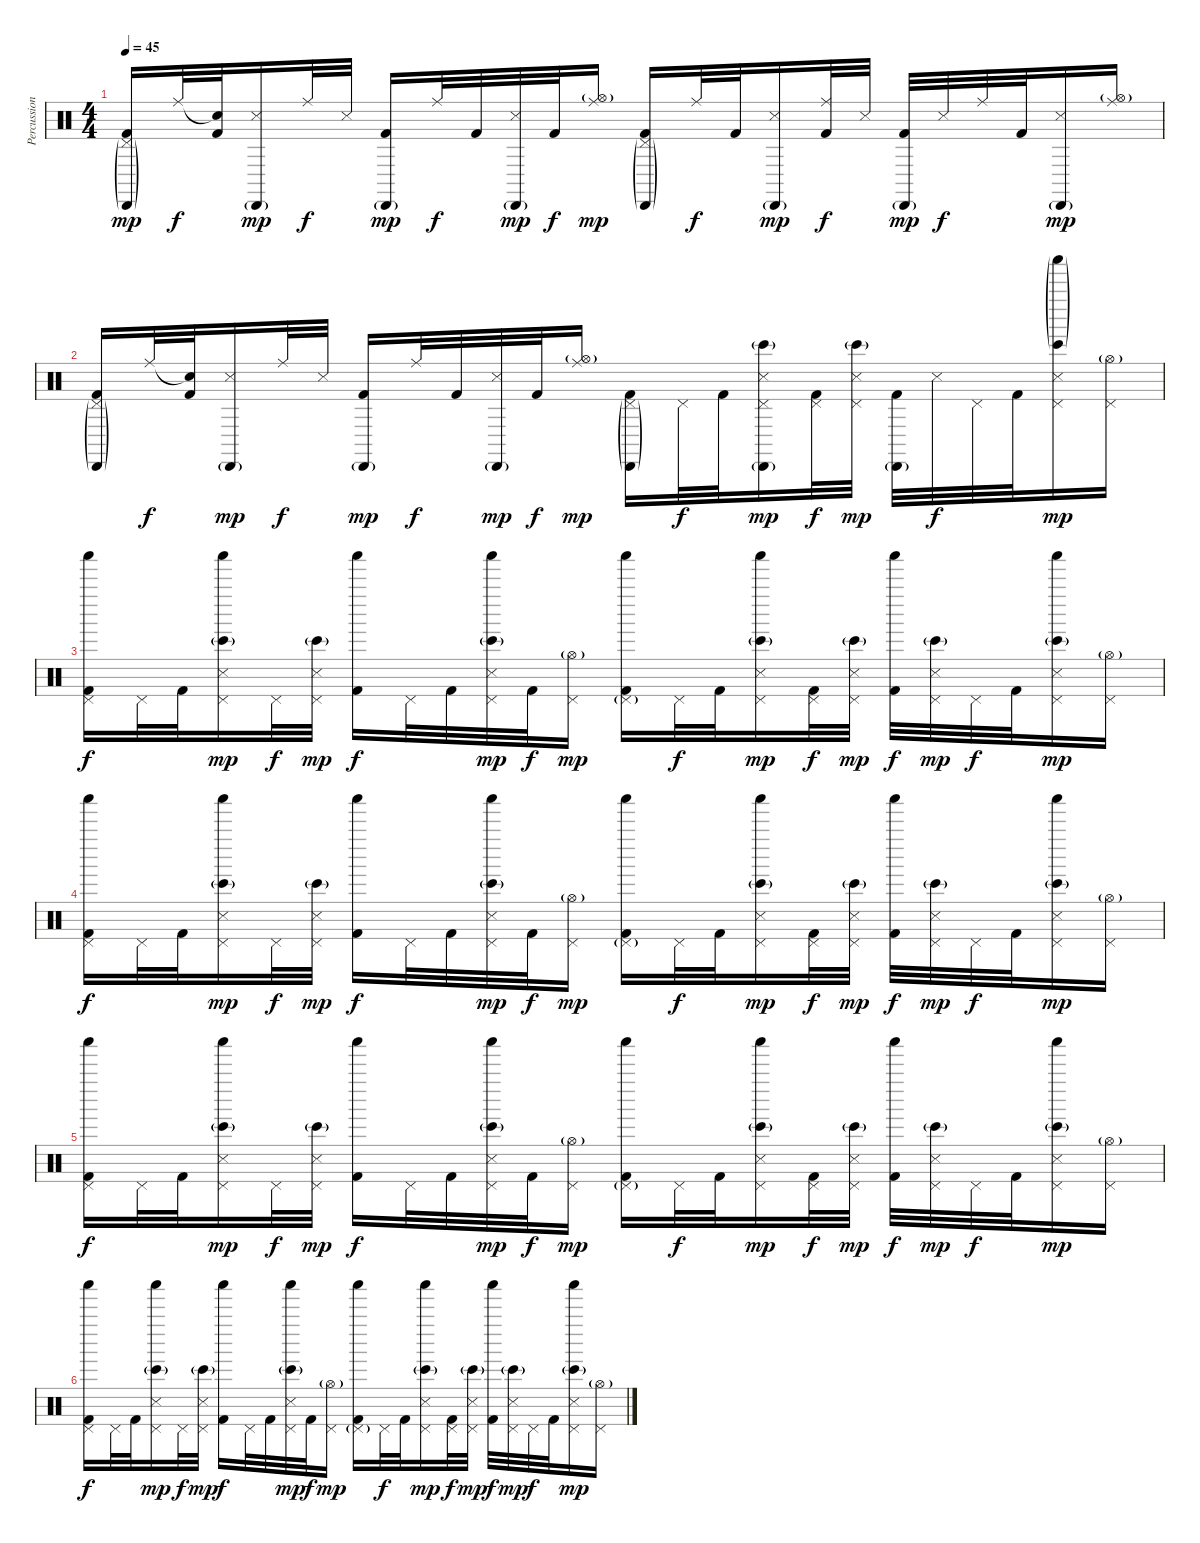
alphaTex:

\track ("Percussion" "Percussion") {instrument percussion}
\staff {score}
\articulation defaults
\ts (4 4)
\tempo 45
\clef neutral
\ks c
("Pedal Hi-Hat (hit)"{g} "Cabasa (hit)"{g} "Kick (hit) 2").16{dy mp} "Ride (middle)".32{dy f} ("Snare (hit)"{t} "Kick (hit) 2").32 ("Cabasa (hit)"{g} "Snare (side stick) 3").16{dy mp} "Ride (middle)".32{dy f} "Snare (side stick) 3".32 ("Cabasa (hit)"{g} "Kick (hit) 2").16{dy mp} "Ride (middle)".32{dy f} "Kick (hit) 2".32 ("Cabasa (hit)"{g} "Snare (side stick) 3").32{dy mp} "Kick (hit) 2".32{dy f} ("Hi-Hat (open)"{g} "Ride (middle)").16{dy mp} ("Pedal Hi-Hat (hit)"{g} "Cabasa (hit)"{g} "Kick (hit) 2").16 "Ride (middle)".32{dy f} "Kick (hit) 2".32 ("Cabasa (hit)"{g} "Snare (side stick) 3").16{dy mp} ("Ride (middle)" "Kick (hit) 2").32{dy f} "Snare (side stick) 3".32 ("Cabasa (hit)"{g} "Kick (hit) 2").32{dy mp} "Snare (side stick) 3".32{dy f} "Ride (middle)".32 "Kick (hit) 2".32 ("Cabasa (hit)"{g} "Snare (side stick) 3").16{dy mp} ("Hi-Hat (open)"{g} "Ride (middle)").16 |
("Pedal Hi-Hat (hit)"{g} "Cabasa (hit)"{g} "Kick (hit) 2").16 "Ride (middle)".32{dy f} ("Snare (hit)"{t} "Kick (hit) 2").32 ("Cabasa (hit)"{g} "Snare (side stick) 3").16{dy mp} "Ride (middle)".32{dy f} "Snare (side stick) 3".32 ("Cabasa (hit)"{g} "Kick (hit) 2").16{dy mp} "Ride (middle)".32{dy f} "Kick (hit) 2".32 ("Cabasa (hit)"{g} "Snare (side stick) 3").32{dy mp} "Kick (hit) 2".32{dy f} ("Hi-Hat (open)"{g} "Ride (middle)").16{dy mp} ("Pedal Hi-Hat (hit)"{g} "Cabasa (hit)"{g} "Kick (hit) 2").16 "Pedal Hi-Hat (hit)".32{dy f} "Kick (hit) 2".32 ("Pedal Hi-Hat (hit)" "Cabasa (hit)"{g} "Snare (side stick) 3" "Bongo High (hit)"{g}).16{dy mp} ("Pedal Hi-Hat (hit)" "Kick (hit) 2").32{dy f} ("Pedal Hi-Hat (hit)" "Snare (side stick) 3" "Bongo High (hit)"{g}).32{dy mp} ("Cabasa (hit)"{g} "Kick (hit) 2").32 "Snare (side stick) 3".32{dy f} "Pedal Hi-Hat (hit)".32 "Kick (hit) 2".32 ("Pedal Hi-Hat (hit)" "Shaker (hit)"{g} "Snare (side stick) 3" "Bongo High (hit)"{g}).16{dy mp} ("Hi-Hat (open)"{g} "Pedal Hi-Hat (hit)").16 |
("Pedal Hi-Hat (hit)" "Shaker (hit)" "Kick (hit) 2").16{dy f volume 14} "Pedal Hi-Hat (hit)".32 "Kick (hit) 2".32 ("Pedal Hi-Hat (hit)" "Shaker (hit)" "Snare (side stick) 3" "Bongo High (hit)"{g}).16{dy mp} "Pedal Hi-Hat (hit)".32{dy f} ("Pedal Hi-Hat (hit)" "Snare (side stick) 3" "Bongo High (hit)"{g}).32{dy mp} ("Shaker (hit)" "Kick (hit) 2").16{dy f} "Pedal Hi-Hat (hit)".32 "Kick (hit) 2".32 ("Pedal Hi-Hat (hit)" "Shaker (hit)" "Snare (side stick) 3" "Bongo High (hit)"{g}).32{dy mp} "Kick (hit) 2".32{dy f} ("Hi-Hat (open)"{g} "Pedal Hi-Hat (hit)").16{dy mp} ("Pedal Hi-Hat (hit)"{g} "Shaker (hit)" "Kick (hit) 2").16 "Pedal Hi-Hat (hit)".32{dy f} "Kick (hit) 2".32 ("Pedal Hi-Hat (hit)" "Shaker (hit)" "Snare (side stick) 3" "Bongo High (hit)"{g}).16{dy mp} ("Pedal Hi-Hat (hit)" "Kick (hit) 2").32{dy f} ("Pedal Hi-Hat (hit)" "Snare (side stick) 3" "Bongo High (hit)"{g}).32{dy mp} ("Shaker (hit)" "Kick (hit) 2").32{dy f} ("Pedal Hi-Hat (hit)" "Snare (side stick) 3" "Bongo High (hit)"{g}).32{dy mp} "Pedal Hi-Hat (hit)".32{dy f} "Kick (hit) 2".32 ("Pedal Hi-Hat (hit)" "Shaker (hit)" "Snare (side stick) 3" "Bongo High (hit)"{g}).16{dy mp} ("Hi-Hat (open)"{g} "Pedal Hi-Hat (hit)").16 |
("Pedal Hi-Hat (hit)" "Shaker (hit)" "Kick (hit) 2").16{dy f volume 12} "Pedal Hi-Hat (hit)".32 "Kick (hit) 2".32 ("Pedal Hi-Hat (hit)" "Shaker (hit)" "Snare (side stick) 3" "Bongo High (hit)"{g}).16{dy mp} "Pedal Hi-Hat (hit)".32{dy f} ("Pedal Hi-Hat (hit)" "Snare (side stick) 3" "Bongo High (hit)"{g}).32{dy mp} ("Shaker (hit)" "Kick (hit) 2").16{dy f} "Pedal Hi-Hat (hit)".32 "Kick (hit) 2".32 ("Pedal Hi-Hat (hit)" "Shaker (hit)" "Snare (side stick) 3" "Bongo High (hit)"{g}).32{dy mp} "Kick (hit) 2".32{dy f} ("Hi-Hat (open)"{g} "Pedal Hi-Hat (hit)").16{dy mp} ("Pedal Hi-Hat (hit)"{g} "Shaker (hit)" "Kick (hit) 2").16 "Pedal Hi-Hat (hit)".32{dy f} "Kick (hit) 2".32 ("Pedal Hi-Hat (hit)" "Shaker (hit)" "Snare (side stick) 3" "Bongo High (hit)"{g}).16{dy mp} ("Pedal Hi-Hat (hit)" "Kick (hit) 2").32{dy f} ("Pedal Hi-Hat (hit)" "Snare (side stick) 3" "Bongo High (hit)"{g}).32{dy mp} ("Shaker (hit)" "Kick (hit) 2").32{dy f} ("Pedal Hi-Hat (hit)" "Snare (side stick) 3" "Bongo High (hit)"{g}).32{dy mp} "Pedal Hi-Hat (hit)".32{dy f} "Kick (hit) 2".32 ("Pedal Hi-Hat (hit)" "Shaker (hit)" "Snare (side stick) 3" "Bongo High (hit)"{g}).16{dy mp} ("Hi-Hat (open)"{g} "Pedal Hi-Hat (hit)").16 |
("Pedal Hi-Hat (hit)" "Shaker (hit)" "Kick (hit) 2").16{dy f volume 10} "Pedal Hi-Hat (hit)".32 "Kick (hit) 2".32 ("Pedal Hi-Hat (hit)" "Shaker (hit)" "Snare (side stick) 3" "Bongo High (hit)"{g}).16{dy mp} "Pedal Hi-Hat (hit)".32{dy f} ("Pedal Hi-Hat (hit)" "Snare (side stick) 3" "Bongo High (hit)"{g}).32{dy mp} ("Shaker (hit)" "Kick (hit) 2").16{dy f} "Pedal Hi-Hat (hit)".32 "Kick (hit) 2".32 ("Pedal Hi-Hat (hit)" "Shaker (hit)" "Snare (side stick) 3" "Bongo High (hit)"{g}).32{dy mp} "Kick (hit) 2".32{dy f} ("Hi-Hat (open)"{g} "Pedal Hi-Hat (hit)").16{dy mp} ("Pedal Hi-Hat (hit)"{g} "Shaker (hit)" "Kick (hit) 2").16 "Pedal Hi-Hat (hit)".32{dy f} "Kick (hit) 2".32 ("Pedal Hi-Hat (hit)" "Shaker (hit)" "Snare (side stick) 3" "Bongo High (hit)"{g}).16{dy mp} ("Pedal Hi-Hat (hit)" "Kick (hit) 2").32{dy f} ("Pedal Hi-Hat (hit)" "Snare (side stick) 3" "Bongo High (hit)"{g}).32{dy mp} ("Shaker (hit)" "Kick (hit) 2").32{dy f} ("Pedal Hi-Hat (hit)" "Snare (side stick) 3" "Bongo High (hit)"{g}).32{dy mp} "Pedal Hi-Hat (hit)".32{dy f} "Kick (hit) 2".32 ("Pedal Hi-Hat (hit)" "Shaker (hit)" "Snare (side stick) 3" "Bongo High (hit)"{g}).16{dy mp} ("Hi-Hat (open)"{g} "Pedal Hi-Hat (hit)").16 |
("Pedal Hi-Hat (hit)" "Shaker (hit)" "Kick (hit) 2").16{dy f volume 8} "Pedal Hi-Hat (hit)".32 "Kick (hit) 2".32 ("Pedal Hi-Hat (hit)" "Shaker (hit)" "Snare (side stick) 3" "Bongo High (hit)"{g}).16{dy mp} "Pedal Hi-Hat (hit)".32{dy f} ("Pedal Hi-Hat (hit)" "Snare (side stick) 3" "Bongo High (hit)"{g}).32{dy mp} ("Shaker (hit)" "Kick (hit) 2").16{dy f} "Pedal Hi-Hat (hit)".32 "Kick (hit) 2".32 ("Pedal Hi-Hat (hit)" "Shaker (hit)" "Snare (side stick) 3" "Bongo High (hit)"{g}).32{dy mp} "Kick (hit) 2".32{dy f} ("Hi-Hat (open)"{g} "Pedal Hi-Hat (hit)").16{dy mp} ("Pedal Hi-Hat (hit)"{g} "Shaker (hit)" "Kick (hit) 2").16 "Pedal Hi-Hat (hit)".32{dy f} "Kick (hit) 2".32 ("Pedal Hi-Hat (hit)" "Shaker (hit)" "Snare (side stick) 3" "Bongo High (hit)"{g}).16{dy mp} ("Pedal Hi-Hat (hit)" "Kick (hit) 2").32{dy f} ("Pedal Hi-Hat (hit)" "Snare (side stick) 3" "Bongo High (hit)"{g}).32{dy mp} ("Shaker (hit)" "Kick (hit) 2").32{dy f} ("Pedal Hi-Hat (hit)" "Snare (side stick) 3" "Bongo High (hit)"{g}).32{dy mp} "Pedal Hi-Hat (hit)".32{dy f} "Kick (hit) 2".32 ("Pedal Hi-Hat (hit)" "Shaker (hit)" "Snare (side stick) 3" "Bongo High (hit)"{g}).16{dy mp} ("Hi-Hat (open)"{g} "Pedal Hi-Hat (hit)").16
